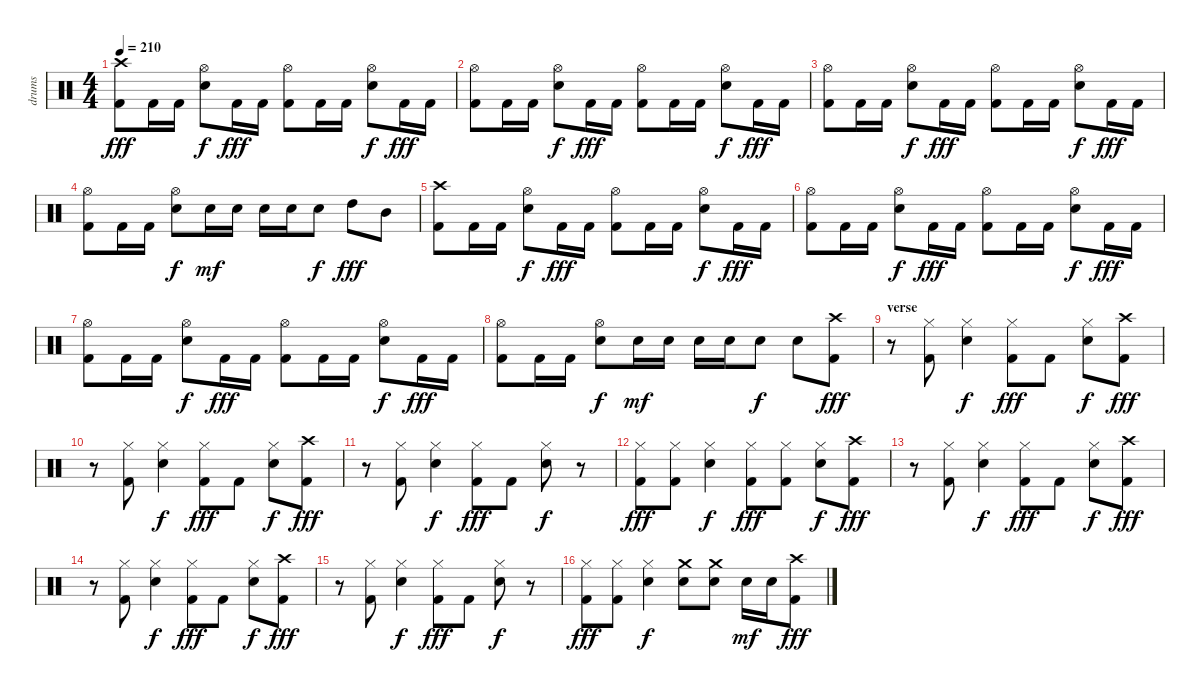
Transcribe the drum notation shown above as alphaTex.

\track ("drums" "drums") {instrument percussion}
\staff {score}
\articulation defaults
\ts (4 4)
\tempo 210
\clef neutral
\ks c
("Crash high (hit)" "Kick (hit) 2").8{dy fff} "Kick (hit) 2".16 "Kick (hit) 2".16 ("Hi-Hat (open)" "Snare (hit) 2").8{dy f} "Kick (hit) 2".16{dy fff} "Kick (hit) 2".16 ("Hi-Hat (open)" "Kick (hit) 2").8 "Kick (hit) 2".16 "Kick (hit) 2".16 ("Hi-Hat (open)" "Snare (hit) 2").8{dy f} "Kick (hit) 2".16{dy fff} "Kick (hit) 2".16 |
("Hi-Hat (open)" "Kick (hit) 2").8 "Kick (hit) 2".16 "Kick (hit) 2".16 ("Hi-Hat (open)" "Snare (hit) 2").8{dy f} "Kick (hit) 2".16{dy fff} "Kick (hit) 2".16 ("Hi-Hat (open)" "Kick (hit) 2").8 "Kick (hit) 2".16 "Kick (hit) 2".16 ("Hi-Hat (open)" "Snare (hit) 2").8{dy f} "Kick (hit) 2".16{dy fff} "Kick (hit) 2".16 |
("Hi-Hat (open)" "Kick (hit) 2").8 "Kick (hit) 2".16 "Kick (hit) 2".16 ("Hi-Hat (open)" "Snare (hit) 2").8{dy f} "Kick (hit) 2".16{dy fff} "Kick (hit) 2".16 ("Hi-Hat (open)" "Kick (hit) 2").8 "Kick (hit) 2".16 "Kick (hit) 2".16 ("Hi-Hat (open)" "Snare (hit) 2").8{dy f} "Kick (hit) 2".16{dy fff} "Kick (hit) 2".16 |
("Hi-Hat (open)" "Kick (hit) 2").8 "Kick (hit) 2".16 "Kick (hit) 2".16 ("Hi-Hat (open)" "Snare (hit) 2").8{dy f} "Snare (hit) 2".16{dy mf} "Snare (hit) 2".16 "Snare (hit) 2".16 "Snare (hit) 2".16 "Snare (hit) 2".8{dy f} "High Tom (hit)".8{dy fff} "Mid Tom (hit)".8 |
("Crash high (hit)" "Kick (hit) 2").8 "Kick (hit) 2".16 "Kick (hit) 2".16 ("Hi-Hat (open)" "Snare (hit) 2").8{dy f} "Kick (hit) 2".16{dy fff} "Kick (hit) 2".16 ("Hi-Hat (open)" "Kick (hit) 2").8 "Kick (hit) 2".16 "Kick (hit) 2".16 ("Hi-Hat (open)" "Snare (hit) 2").8{dy f} "Kick (hit) 2".16{dy fff} "Kick (hit) 2".16 |
("Hi-Hat (open)" "Kick (hit) 2").8 "Kick (hit) 2".16 "Kick (hit) 2".16 ("Hi-Hat (open)" "Snare (hit) 2").8{dy f} "Kick (hit) 2".16{dy fff} "Kick (hit) 2".16 ("Hi-Hat (open)" "Kick (hit) 2").8 "Kick (hit) 2".16 "Kick (hit) 2".16 ("Hi-Hat (open)" "Snare (hit) 2").8{dy f} "Kick (hit) 2".16{dy fff} "Kick (hit) 2".16 |
("Hi-Hat (open)" "Kick (hit) 2").8 "Kick (hit) 2".16 "Kick (hit) 2".16 ("Hi-Hat (open)" "Snare (hit) 2").8{dy f} "Kick (hit) 2".16{dy fff} "Kick (hit) 2".16 ("Hi-Hat (open)" "Kick (hit) 2").8 "Kick (hit) 2".16 "Kick (hit) 2".16 ("Hi-Hat (open)" "Snare (hit) 2").8{dy f} "Kick (hit) 2".16{dy fff} "Kick (hit) 2".16 |
("Hi-Hat (open)" "Kick (hit) 2").8 "Kick (hit) 2".16 "Kick (hit) 2".16 ("Hi-Hat (open)" "Snare (hit) 2").8{dy f} "Snare (hit) 2".16{dy mf} "Snare (hit) 2".16 "Snare (hit) 2".16 "Snare (hit) 2".16 "Snare (hit) 2".8{dy f} "Snare (hit) 2".8 ("Crash high (hit)" "Kick (hit) 2").8{dy fff} |
\section ("" "verse")
r.8 ("Hi-Hat (closed)" "Kick (hit) 2").8 ("Hi-Hat (closed)" "Snare (hit) 2").4{dy f} ("Hi-Hat (closed)" "Kick (hit) 2").8{dy fff} "Kick (hit) 2".8 ("Hi-Hat (closed)" "Snare (hit) 2").8{dy f} ("Crash high (hit)" "Kick (hit) 2").8{dy fff} |
r.8 ("Hi-Hat (closed)" "Kick (hit) 2").8 ("Hi-Hat (closed)" "Snare (hit) 2").4{dy f} ("Hi-Hat (closed)" "Kick (hit) 2").8{dy fff} "Kick (hit) 2".8 ("Hi-Hat (closed)" "Snare (hit) 2").8{dy f} ("Crash high (hit)" "Kick (hit) 2").8{dy fff} |
r.8 ("Hi-Hat (closed)" "Kick (hit) 2").8 ("Hi-Hat (closed)" "Snare (hit) 2").4{dy f} ("Hi-Hat (closed)" "Kick (hit) 2").8{dy fff} "Kick (hit) 2".8 ("Hi-Hat (closed)" "Snare (hit) 2").8{dy f} r.8 |
("Hi-Hat (closed)" "Kick (hit) 2").8{dy fff} ("Hi-Hat (closed)" "Kick (hit) 2").8 ("Hi-Hat (closed)" "Snare (hit) 2").4{dy f} ("Hi-Hat (closed)" "Kick (hit) 2").8{dy fff} ("Hi-Hat (closed)" "Kick (hit) 2").8 ("Hi-Hat (closed)" "Snare (hit) 2").8{dy f} ("Crash high (hit)" "Kick (hit) 2").8{dy fff} |
r.8 ("Hi-Hat (closed)" "Kick (hit) 2").8 ("Hi-Hat (closed)" "Snare (hit) 2").4{dy f} ("Hi-Hat (closed)" "Kick (hit) 2").8{dy fff} "Kick (hit) 2".8 ("Hi-Hat (closed)" "Snare (hit) 2").8{dy f} ("Crash high (hit)" "Kick (hit) 2").8{dy fff} |
r.8 ("Hi-Hat (closed)" "Kick (hit) 2").8 ("Hi-Hat (closed)" "Snare (hit) 2").4{dy f} ("Hi-Hat (closed)" "Kick (hit) 2").8{dy fff} "Kick (hit) 2".8 ("Hi-Hat (closed)" "Snare (hit) 2").8{dy f} ("Crash high (hit)" "Kick (hit) 2").8{dy fff} |
r.8 ("Hi-Hat (closed)" "Kick (hit) 2").8 ("Hi-Hat (closed)" "Snare (hit) 2").4{dy f} ("Hi-Hat (closed)" "Kick (hit) 2").8{dy fff} "Kick (hit) 2".8 ("Hi-Hat (closed)" "Snare (hit) 2").8{dy f} r.8 |
("Hi-Hat (closed)" "Kick (hit) 2").8{dy fff} ("Hi-Hat (closed)" "Kick (hit) 2").8 ("Hi-Hat (closed)" "Snare (hit) 2").4{dy f} ("Crash medium (hit)" "Snare (hit) 2").8 ("Crash medium (hit)" "Snare (hit) 2").8 "Snare (hit) 2".16{dy mf} "Snare (hit) 2".16 ("Crash high (hit)" "Kick (hit) 2").8{dy fff}
